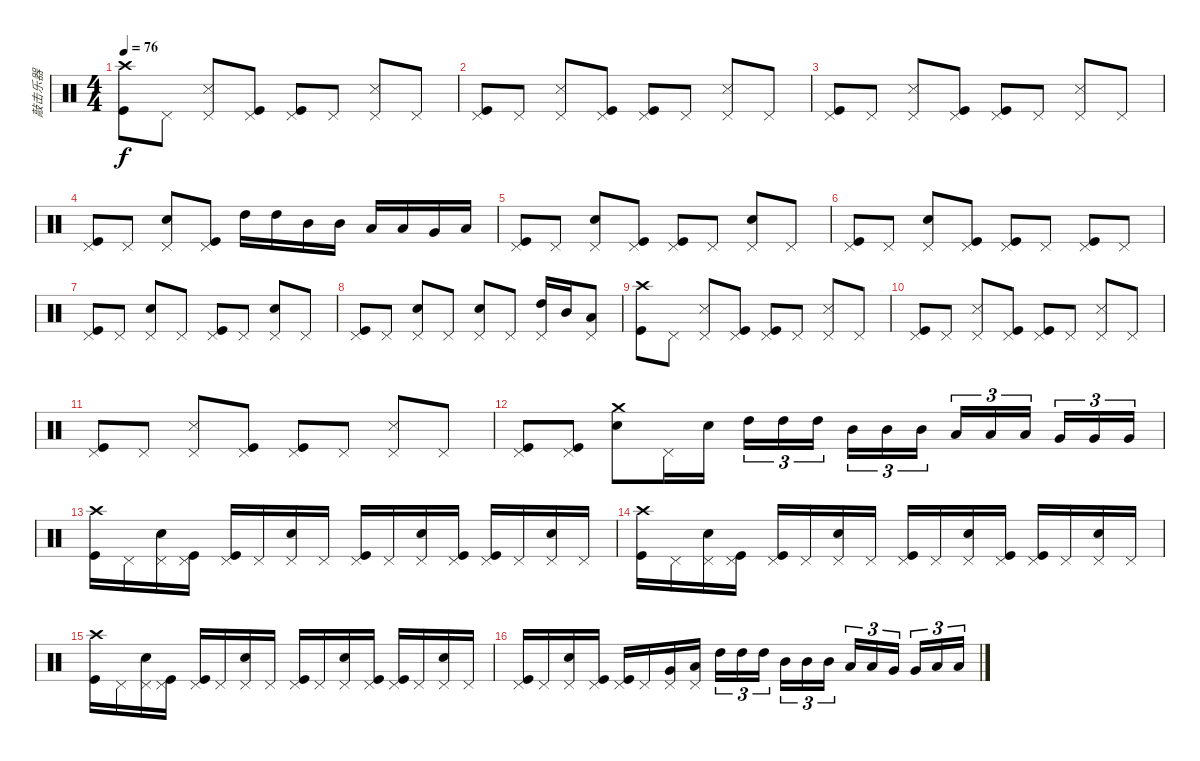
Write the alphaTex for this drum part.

\track ("敲击乐器" "敲击乐器") {instrument percussion}
\staff {score}
\articulation defaults
\ts (4 4)
\tempo 76
\clef neutral
\ks c
("Kick (hit)" "Crash high (hit)").8{dy f} "Pedal Hi-Hat (hit)".8 ("Snare (side stick) 3" "Pedal Hi-Hat (hit)").8 ("Kick (hit)" "Pedal Hi-Hat (hit)").8 ("Kick (hit)" "Pedal Hi-Hat (hit)").8 "Pedal Hi-Hat (hit)".8 ("Snare (side stick) 3" "Pedal Hi-Hat (hit)").8 "Pedal Hi-Hat (hit)".8 |
("Kick (hit)" "Pedal Hi-Hat (hit)").8 "Pedal Hi-Hat (hit)".8 ("Snare (side stick) 3" "Pedal Hi-Hat (hit)").8 ("Kick (hit)" "Pedal Hi-Hat (hit)").8 ("Kick (hit)" "Pedal Hi-Hat (hit)").8 "Pedal Hi-Hat (hit)".8 ("Snare (side stick) 3" "Pedal Hi-Hat (hit)").8 "Pedal Hi-Hat (hit)".8 |
("Kick (hit)" "Pedal Hi-Hat (hit)").8 "Pedal Hi-Hat (hit)".8 ("Snare (side stick) 3" "Pedal Hi-Hat (hit)").8 ("Kick (hit)" "Pedal Hi-Hat (hit)").8 ("Kick (hit)" "Pedal Hi-Hat (hit)").8 "Pedal Hi-Hat (hit)".8 ("Snare (side stick) 3" "Pedal Hi-Hat (hit)").8 "Pedal Hi-Hat (hit)".8 |
("Kick (hit)" "Pedal Hi-Hat (hit)").8 "Pedal Hi-Hat (hit)".8 ("Snare (hit) 2" "Pedal Hi-Hat (hit)").8 ("Kick (hit)" "Pedal Hi-Hat (hit)").8 "High Tom (hit)".16 "High Tom (hit)".16 "Mid Tom (hit)".16 "Mid Tom (hit)".16 "Low Tom (hit)".16 "Low Tom (hit)".16 "Very Low Tom (hit)".16 "Low Floor Tom (hit)".16 |
("Kick (hit)" "Pedal Hi-Hat (hit)").8 "Pedal Hi-Hat (hit)".8 ("Snare (hit) 2" "Pedal Hi-Hat (hit)").8 ("Kick (hit)" "Pedal Hi-Hat (hit)").8 ("Kick (hit)" "Pedal Hi-Hat (hit)").8 "Pedal Hi-Hat (hit)".8 ("Snare (hit) 2" "Pedal Hi-Hat (hit)").8 "Pedal Hi-Hat (hit)".8 |
("Kick (hit)" "Pedal Hi-Hat (hit)").8 "Pedal Hi-Hat (hit)".8 ("Snare (hit) 2" "Pedal Hi-Hat (hit)").8 ("Kick (hit)" "Pedal Hi-Hat (hit)").8 ("Kick (hit)" "Pedal Hi-Hat (hit)").8 "Pedal Hi-Hat (hit)".8 ("Kick (hit)" "Pedal Hi-Hat (hit)").8 "Pedal Hi-Hat (hit)".8 |
("Kick (hit)" "Pedal Hi-Hat (hit)").8 "Pedal Hi-Hat (hit)".8 ("Snare (hit) 2" "Pedal Hi-Hat (hit)").8 "Pedal Hi-Hat (hit)".8 ("Kick (hit)" "Pedal Hi-Hat (hit)").8 "Pedal Hi-Hat (hit)".8 ("Snare (hit) 2" "Pedal Hi-Hat (hit)").8 "Pedal Hi-Hat (hit)".8 |
("Kick (hit)" "Pedal Hi-Hat (hit)").8 "Pedal Hi-Hat (hit)".8 ("Snare (hit) 2" "Pedal Hi-Hat (hit)").8 "Pedal Hi-Hat (hit)".8 ("Snare (hit) 2" "Pedal Hi-Hat (hit)").8 "Pedal Hi-Hat (hit)".8 ("High Tom (hit)" "Pedal Hi-Hat (hit)").16 "Mid Tom (hit)".16 ("Low Tom (hit)" "Pedal Hi-Hat (hit)").8 |
("Kick (hit)" "Crash high (hit)").8 "Pedal Hi-Hat (hit)".8 ("Snare (side stick) 3" "Pedal Hi-Hat (hit)").8 ("Kick (hit)" "Pedal Hi-Hat (hit)").8 ("Kick (hit)" "Pedal Hi-Hat (hit)").8 "Pedal Hi-Hat (hit)".8 ("Snare (side stick) 3" "Pedal Hi-Hat (hit)").8 "Pedal Hi-Hat (hit)".8 |
("Kick (hit)" "Pedal Hi-Hat (hit)").8 "Pedal Hi-Hat (hit)".8 ("Snare (side stick) 3" "Pedal Hi-Hat (hit)").8 ("Kick (hit)" "Pedal Hi-Hat (hit)").8 ("Kick (hit)" "Pedal Hi-Hat (hit)").8 "Pedal Hi-Hat (hit)".8 ("Snare (side stick) 3" "Pedal Hi-Hat (hit)").8 "Pedal Hi-Hat (hit)".8 |
("Kick (hit)" "Pedal Hi-Hat (hit)").8 "Pedal Hi-Hat (hit)".8 ("Snare (side stick) 3" "Pedal Hi-Hat (hit)").8 ("Kick (hit)" "Pedal Hi-Hat (hit)").8 ("Kick (hit)" "Pedal Hi-Hat (hit)").8 "Pedal Hi-Hat (hit)".8 ("Snare (side stick) 3" "Pedal Hi-Hat (hit)").8 "Pedal Hi-Hat (hit)".8 |
("Kick (hit)" "Pedal Hi-Hat (hit)").8 ("Kick (hit)" "Pedal Hi-Hat (hit)").8 ("Snare (hit) 2" "Crash medium (hit)").8 "Pedal Hi-Hat (hit)".16 "Snare (hit) 2".16 "High Tom (hit)".16{tu (3 2)} "High Tom (hit)".16{tu (3 2)} "High Tom (hit)".16{tu (3 2) beam splitsecondary} "Mid Tom (hit)".16{tu (3 2)} "Mid Tom (hit)".16{tu (3 2)} "Mid Tom (hit)".16{tu (3 2)} "Low Tom (hit)".16{tu (3 2)} "Low Tom (hit)".16{tu (3 2)} "Low Tom (hit)".16{tu (3 2) beam splitsecondary} "Very Low Tom (hit)".16{tu (3 2)} "Very Low Tom (hit)".16{tu (3 2)} "Very Low Tom (hit)".16{tu (3 2)} |
("Kick (hit)" "Crash high (hit)").16 "Pedal Hi-Hat (hit)".16 ("Snare (hit) 2" "Pedal Hi-Hat (hit)").16 ("Kick (hit)" "Pedal Hi-Hat (hit)").16 ("Kick (hit)" "Pedal Hi-Hat (hit)").16 "Pedal Hi-Hat (hit)".16 ("Snare (hit) 2" "Pedal Hi-Hat (hit)").16 "Pedal Hi-Hat (hit)".16 ("Kick (hit)" "Pedal Hi-Hat (hit)").16 "Pedal Hi-Hat (hit)".16 ("Snare (hit) 2" "Pedal Hi-Hat (hit)").16 ("Kick (hit)" "Pedal Hi-Hat (hit)").16 ("Kick (hit)" "Pedal Hi-Hat (hit)").16 "Pedal Hi-Hat (hit)".16 ("Snare (hit) 2" "Pedal Hi-Hat (hit)").16 "Pedal Hi-Hat (hit)".16 |
("Kick (hit)" "Crash high (hit)").16 "Pedal Hi-Hat (hit)".16 ("Snare (hit) 2" "Pedal Hi-Hat (hit)").16 ("Kick (hit)" "Pedal Hi-Hat (hit)").16 ("Kick (hit)" "Pedal Hi-Hat (hit)").16 "Pedal Hi-Hat (hit)".16 ("Snare (hit) 2" "Pedal Hi-Hat (hit)").16 "Pedal Hi-Hat (hit)".16 ("Kick (hit)" "Pedal Hi-Hat (hit)").16 "Pedal Hi-Hat (hit)".16 ("Snare (hit) 2" "Pedal Hi-Hat (hit)").16 ("Kick (hit)" "Pedal Hi-Hat (hit)").16 ("Kick (hit)" "Pedal Hi-Hat (hit)").16 "Pedal Hi-Hat (hit)".16 ("Snare (hit) 2" "Pedal Hi-Hat (hit)").16 "Pedal Hi-Hat (hit)".16 |
("Kick (hit)" "Crash high (hit)").16 "Pedal Hi-Hat (hit)".16 ("Snare (hit) 2" "Pedal Hi-Hat (hit)").16 ("Kick (hit)" "Pedal Hi-Hat (hit)").16 ("Kick (hit)" "Pedal Hi-Hat (hit)").16 "Pedal Hi-Hat (hit)".16 ("Snare (hit) 2" "Pedal Hi-Hat (hit)").16 "Pedal Hi-Hat (hit)".16 ("Kick (hit)" "Pedal Hi-Hat (hit)").16 "Pedal Hi-Hat (hit)".16 ("Snare (hit) 2" "Pedal Hi-Hat (hit)").16 ("Kick (hit)" "Pedal Hi-Hat (hit)").16 ("Kick (hit)" "Pedal Hi-Hat (hit)").16 "Pedal Hi-Hat (hit)".16 ("Snare (hit) 2" "Pedal Hi-Hat (hit)").16 "Pedal Hi-Hat (hit)".16 |
("Kick (hit)" "Pedal Hi-Hat (hit)").16 "Pedal Hi-Hat (hit)".16 ("Snare (hit) 2" "Pedal Hi-Hat (hit)").16 ("Kick (hit)" "Pedal Hi-Hat (hit)").16 ("Kick (hit)" "Pedal Hi-Hat (hit)").16 "Pedal Hi-Hat (hit)".16 ("Very Low Tom (hit)" "Pedal Hi-Hat (hit)").16 ("Low Floor Tom (hit)" "Pedal Hi-Hat (hit)").16 "High Tom (hit)".16{tu (3 2)} "High Tom (hit)".16{tu (3 2)} "High Tom (hit)".16{tu (3 2) beam splitsecondary} "Mid Tom (hit)".16{tu (3 2)} "Mid Tom (hit)".16{tu (3 2)} "Mid Tom (hit)".16{tu (3 2)} "Low Tom (hit)".16{tu (3 2)} "Low Tom (hit)".16{tu (3 2)} "Very Low Tom (hit)".16{tu (3 2) beam splitsecondary} "Very Low Tom (hit)".16{tu (3 2)} "Low Floor Tom (hit)".16{tu (3 2)} "Low Floor Tom (hit)".16{tu (3 2)}
